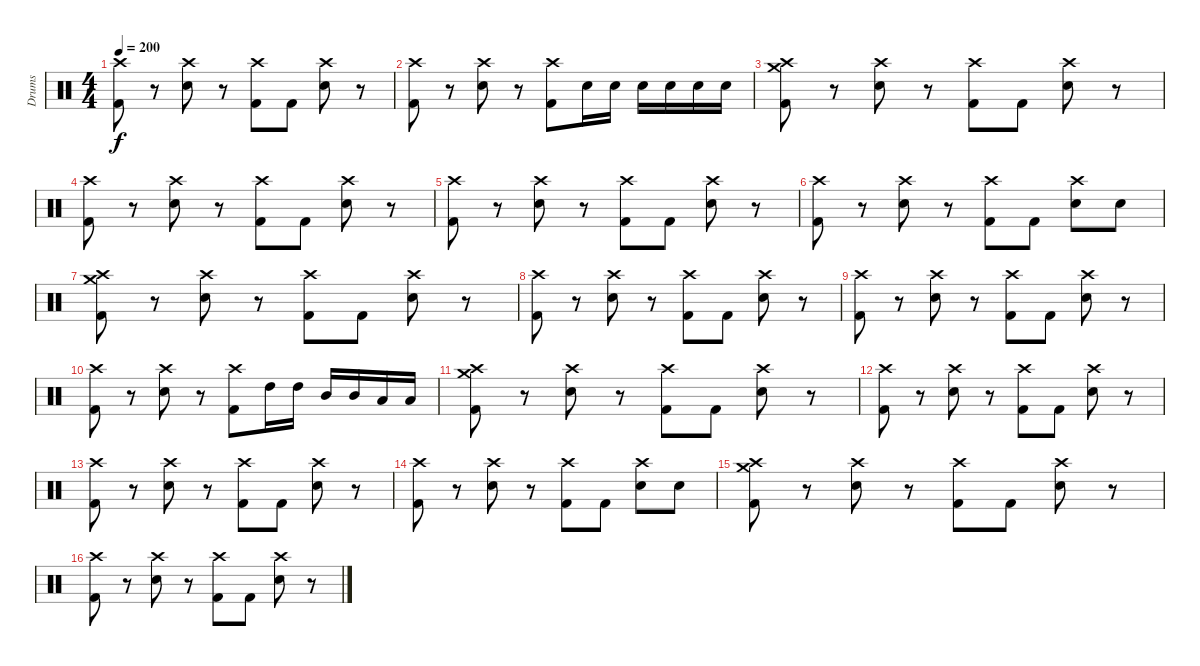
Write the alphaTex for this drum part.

\track ("Drums" "Drums") {instrument percussion}
\staff {score}
\articulation defaults
\ts (4 4)
\tempo 200
\clef neutral
\ks c
("Crash high (hit)" "Kick (hit) 2").8{dy f} r.8 ("Crash high (hit)" "Snare (hit) 2").8 r.8 ("Crash high (hit)" "Kick (hit) 2").8 "Kick (hit) 2".8 ("Crash high (hit)" "Snare (hit) 2").8 r.8 |
("Crash high (hit)" "Kick (hit) 2").8 r.8 ("Crash high (hit)" "Snare (hit) 2").8 r.8 ("Crash high (hit)" "Kick (hit) 2").8 "Snare (hit) 2".16 "Snare (hit) 2".16 "Snare (hit) 2".16 "Snare (hit) 2".16 "Snare (hit) 2".16 "Snare (hit) 2".16 |
("Crash high (hit)" "Crash medium (hit)" "Kick (hit) 2").8 r.8 ("Crash high (hit)" "Snare (hit) 2").8 r.8 ("Crash high (hit)" "Kick (hit) 2").8 "Kick (hit) 2".8 ("Crash high (hit)" "Snare (hit) 2").8 r.8 |
("Crash high (hit)" "Kick (hit) 2").8 r.8 ("Crash high (hit)" "Snare (hit) 2").8 r.8 ("Crash high (hit)" "Kick (hit) 2").8 "Kick (hit) 2".8 ("Crash high (hit)" "Snare (hit) 2").8 r.8 |
("Crash high (hit)" "Kick (hit) 2").8 r.8 ("Crash high (hit)" "Snare (hit) 2").8 r.8 ("Crash high (hit)" "Kick (hit) 2").8 "Kick (hit) 2".8 ("Crash high (hit)" "Snare (hit) 2").8 r.8 |
("Crash high (hit)" "Kick (hit) 2").8 r.8 ("Crash high (hit)" "Snare (hit) 2").8 r.8 ("Crash high (hit)" "Kick (hit) 2").8 "Kick (hit) 2".8 ("Crash high (hit)" "Snare (hit) 2").8 "Snare (hit) 2".8 |
("Crash high (hit)" "Crash medium (hit)" "Kick (hit) 2").8 r.8 ("Crash high (hit)" "Snare (hit) 2").8 r.8 ("Crash high (hit)" "Kick (hit) 2").8 "Kick (hit) 2".8 ("Crash high (hit)" "Snare (hit) 2").8 r.8 |
("Crash high (hit)" "Kick (hit) 2").8 r.8 ("Crash high (hit)" "Snare (hit) 2").8 r.8 ("Crash high (hit)" "Kick (hit) 2").8 "Kick (hit) 2".8 ("Crash high (hit)" "Snare (hit) 2").8 r.8 |
("Crash high (hit)" "Kick (hit) 2").8 r.8 ("Crash high (hit)" "Snare (hit) 2").8 r.8 ("Crash high (hit)" "Kick (hit) 2").8 "Kick (hit) 2".8 ("Crash high (hit)" "Snare (hit) 2").8 r.8 |
("Crash high (hit)" "Kick (hit) 2").8 r.8 ("Crash high (hit)" "Snare (hit) 2").8 r.8 ("Crash high (hit)" "Kick (hit) 2").8 "High Tom (hit)".16 "High Tom (hit)".16 "Mid Tom (hit)".16 "Mid Tom (hit)".16 "Low Tom (hit)".16 "Low Tom (hit)".16 |
("Crash high (hit)" "Crash medium (hit)" "Kick (hit) 2").8 r.8 ("Crash high (hit)" "Snare (hit) 2").8 r.8 ("Crash high (hit)" "Kick (hit) 2").8 "Kick (hit) 2".8 ("Crash high (hit)" "Snare (hit) 2").8 r.8 |
("Crash high (hit)" "Kick (hit) 2").8 r.8 ("Crash high (hit)" "Snare (hit) 2").8 r.8 ("Crash high (hit)" "Kick (hit) 2").8 "Kick (hit) 2".8 ("Crash high (hit)" "Snare (hit) 2").8 r.8 |
("Crash high (hit)" "Kick (hit) 2").8 r.8 ("Crash high (hit)" "Snare (hit) 2").8 r.8 ("Crash high (hit)" "Kick (hit) 2").8 "Kick (hit) 2".8 ("Crash high (hit)" "Snare (hit) 2").8 r.8 |
("Crash high (hit)" "Kick (hit) 2").8 r.8 ("Crash high (hit)" "Snare (hit) 2").8 r.8 ("Crash high (hit)" "Kick (hit) 2").8 "Kick (hit) 2".8 ("Crash high (hit)" "Snare (hit) 2").8 "Snare (hit) 2".8 |
("Crash high (hit)" "Crash medium (hit)" "Kick (hit) 2").8 r.8 ("Crash high (hit)" "Snare (hit) 2").8 r.8 ("Crash high (hit)" "Kick (hit) 2").8 "Kick (hit) 2".8 ("Crash high (hit)" "Snare (hit) 2").8 r.8 |
("Crash high (hit)" "Kick (hit) 2").8 r.8 ("Crash high (hit)" "Snare (hit) 2").8 r.8 ("Crash high (hit)" "Kick (hit) 2").8 "Kick (hit) 2".8 ("Crash high (hit)" "Snare (hit) 2").8 r.8
